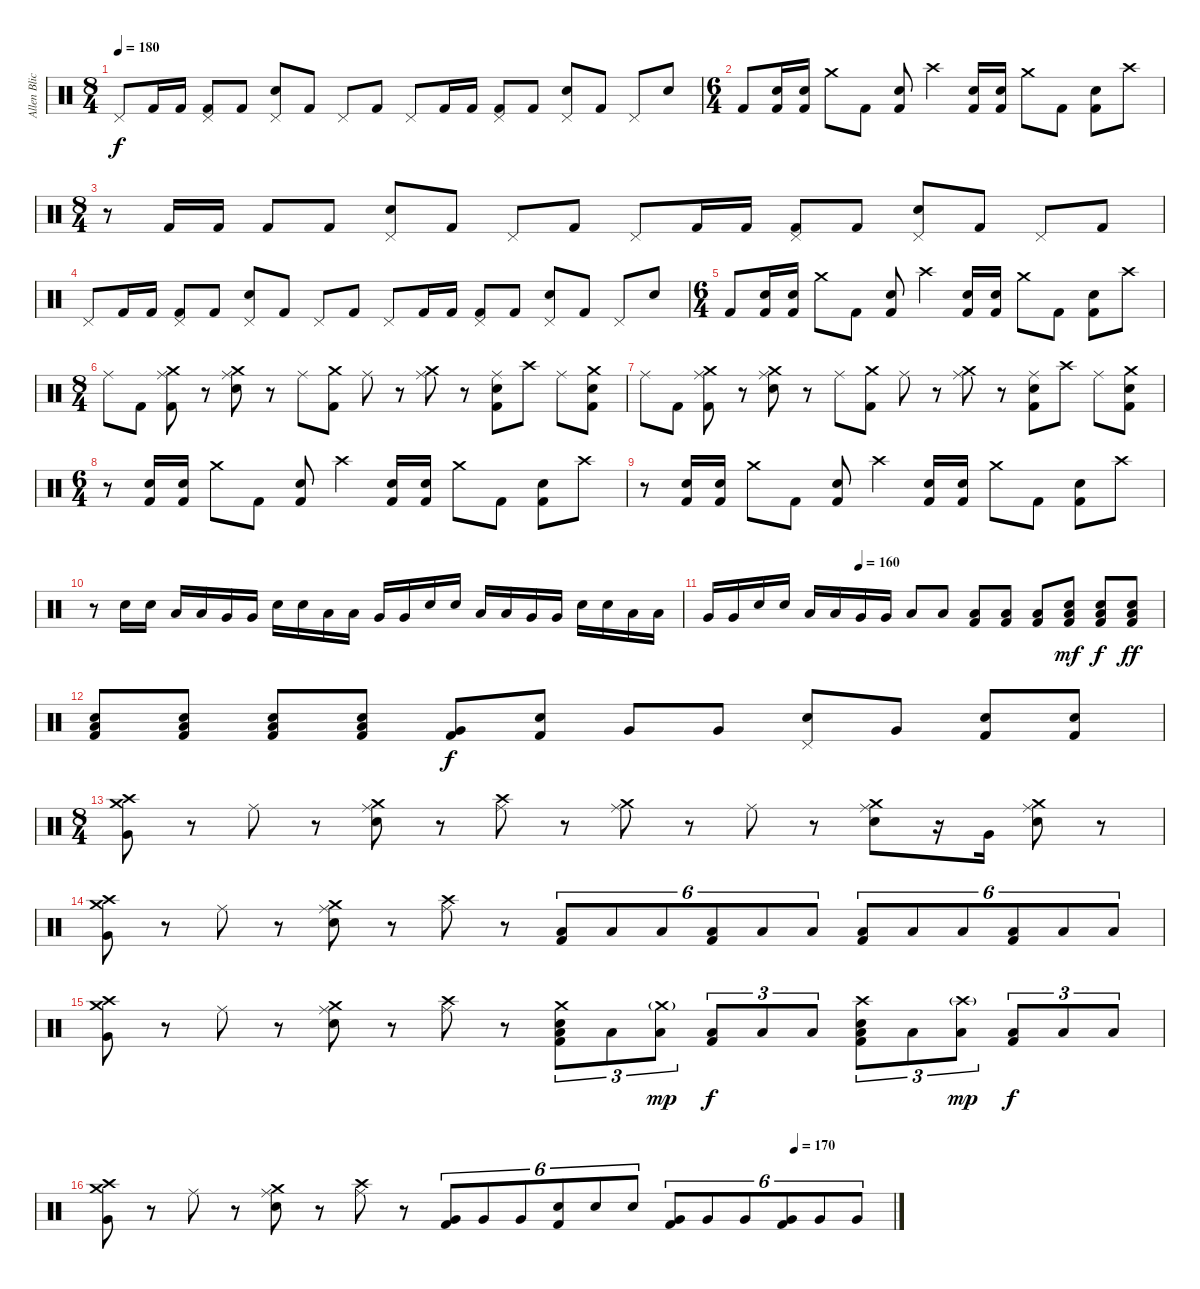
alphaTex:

\track ("Allen Blickle" "Allen Blic") {instrument percussion}
\staff {score}
\articulation defaults
\ts (8 4)
\tempo 180
\clef neutral
\ks c "Pedal Hi-Hat (hit)".8{dy f} "Kick (hit) 2".16 "Kick (hit) 2".16
("Pedal Hi-Hat (hit)" "Kick (hit) 2").8 "Kick (hit) 2".8 ("Pedal Hi-Hat (hit)" "Electric Snare (hit)").8 "Kick (hit) 2".8 "Pedal Hi-Hat (hit)".8 "Kick (hit) 2".8 "Pedal Hi-Hat (hit)".8 "Kick (hit) 2".16 "Kick (hit) 2".16 ("Pedal Hi-Hat (hit)" "Kick (hit) 2").8 "Kick (hit) 2".8 ("Pedal Hi-Hat (hit)" "Electric Snare (hit)").8 "Kick (hit) 2".8 "Pedal Hi-Hat (hit)".8 "Electric Snare (hit)".8 |
\ts (6 4)
"Kick (hit) 2".8 ("Electric Snare (hit)" "Kick (hit) 2").16 ("Electric Snare (hit)" "Kick (hit) 2").16 "Crash medium (hit)".8 "Kick (hit) 2".8 ("Electric Snare (hit)" "Kick (hit) 2").8 "Crash high (hit)".4 ("Electric Snare (hit)" "Kick (hit) 2").16 ("Electric Snare (hit)" "Kick (hit) 2").16 "Crash medium (hit)".8 "Kick (hit) 2".8 ("Electric Snare (hit)" "Kick (hit) 2").8 "Crash high (hit)".8 |
\ts (8 4)
r.8 "Kick (hit) 2".16 "Kick (hit) 2".16 "Kick (hit) 2".8 "Kick (hit) 2".8 ("Pedal Hi-Hat (hit)" "Electric Snare (hit)").8 "Kick (hit) 2".8 "Pedal Hi-Hat (hit)".8 "Kick (hit) 2".8 "Pedal Hi-Hat (hit)".8 "Kick (hit) 2".16 "Kick (hit) 2".16 ("Pedal Hi-Hat (hit)" "Kick (hit) 2").8 "Kick (hit) 2".8 ("Pedal Hi-Hat (hit)" "Electric Snare (hit)").8 "Kick (hit) 2".8 "Pedal Hi-Hat (hit)".8 "Kick (hit) 2".8 |
"Pedal Hi-Hat (hit)".8 "Kick (hit) 2".16 "Kick (hit) 2".16 ("Pedal Hi-Hat (hit)" "Kick (hit) 2").8 "Kick (hit) 2".8 ("Pedal Hi-Hat (hit)" "Electric Snare (hit)").8 "Kick (hit) 2".8 "Pedal Hi-Hat (hit)".8 "Kick (hit) 2".8 "Pedal Hi-Hat (hit)".8 "Kick (hit) 2".16 "Kick (hit) 2".16 ("Pedal Hi-Hat (hit)" "Kick (hit) 2").8 "Kick (hit) 2".8 ("Pedal Hi-Hat (hit)" "Electric Snare (hit)").8 "Kick (hit) 2".8 "Pedal Hi-Hat (hit)".8 "Electric Snare (hit)".8 |
\ts (6 4)
"Kick (hit) 2".8 ("Electric Snare (hit)" "Kick (hit) 2").16 ("Electric Snare (hit)" "Kick (hit) 2").16 "Crash medium (hit)".8 "Kick (hit) 2".8 ("Electric Snare (hit)" "Kick (hit) 2").8 "Crash high (hit)".4 ("Electric Snare (hit)" "Kick (hit) 2").16 ("Electric Snare (hit)" "Kick (hit) 2").16 "Crash medium (hit)".8 "Kick (hit) 2".8 ("Electric Snare (hit)" "Kick (hit) 2").8 "Crash high (hit)".8 |
\ts (8 4)
"Ride (middle)".8 "Kick (hit) 2".8 ("Ride (middle)" "Crash medium (hit)" "Kick (hit) 2").8 r.8 ("Ride (middle)" "Crash medium (hit)" "Electric Snare (hit)").8 r.8 "Ride (middle)".8 ("Crash medium (hit)" "Kick (hit) 2").8 "Ride (middle)".8 r.8 ("Ride (middle)" "Crash medium (hit)").8 r.8 ("Ride (middle)" "Electric Snare (hit)" "Kick (hit) 2").8 "Crash high (hit)".8 "Ride (middle)".8 ("Crash medium (hit)" "Electric Snare (hit)" "Kick (hit) 2").8 |
"Ride (middle)".8 "Kick (hit) 2".8 ("Ride (middle)" "Crash medium (hit)" "Kick (hit) 2").8 r.8 ("Ride (middle)" "Crash medium (hit)" "Electric Snare (hit)").8 r.8 "Ride (middle)".8 ("Crash medium (hit)" "Kick (hit) 2").8 "Ride (middle)".8 r.8 ("Ride (middle)" "Crash medium (hit)").8 r.8 ("Ride (middle)" "Electric Snare (hit)" "Kick (hit) 2").8 "Crash high (hit)".8 "Ride (middle)".8 ("Crash medium (hit)" "Electric Snare (hit)" "Kick (hit) 2").8 |
\ts (6 4)
r.8 ("Electric Snare (hit)" "Kick (hit) 2").16 ("Electric Snare (hit)" "Kick (hit) 2").16 "Crash medium (hit)".8 "Kick (hit) 2".8 ("Electric Snare (hit)" "Kick (hit) 2").8 "Crash high (hit)".4 ("Electric Snare (hit)" "Kick (hit) 2").16 ("Electric Snare (hit)" "Kick (hit) 2").16 "Crash medium (hit)".8 "Kick (hit) 2".8 ("Electric Snare (hit)" "Kick (hit) 2").8 "Crash high (hit)".8 |
r.8 ("Electric Snare (hit)" "Kick (hit) 2").16 ("Electric Snare (hit)" "Kick (hit) 2").16 "Crash medium (hit)".8 "Kick (hit) 2".8 ("Electric Snare (hit)" "Kick (hit) 2").8 "Crash high (hit)".4 ("Electric Snare (hit)" "Kick (hit) 2").16 ("Electric Snare (hit)" "Kick (hit) 2").16 "Crash medium (hit)".8 "Kick (hit) 2".8 ("Electric Snare (hit)" "Kick (hit) 2").8 "Crash high (hit)".8 |
r.8 "Electric Snare (hit)".16 "Electric Snare (hit)".16 "Low Tom (hit)".16 "Low Tom (hit)".16 "Very Low Tom (hit)".16 "Very Low Tom (hit)".16 "Electric Snare (hit)".16 "Electric Snare (hit)".16 "Low Tom (hit)".16 "Low Tom (hit)".16 "Very Low Tom (hit)".16 "Very Low Tom (hit)".16 "Electric Snare (hit)".16 "Electric Snare (hit)".16 "Low Tom (hit)".16 "Low Tom (hit)".16 "Very Low Tom (hit)".16 "Very Low Tom (hit)".16 "Electric Snare (hit)".16 "Electric Snare (hit)".16 "Low Tom (hit)".16 "Low Tom (hit)".16 |
\tempo (160 0.3333333333333333)
"Very Low Tom (hit)".16 "Very Low Tom (hit)".16 "Electric Snare (hit)".16 "Electric Snare (hit)".16 "Low Tom (hit)".16 "Low Tom (hit)".16 "Very Low Tom (hit)".16 "Very Low Tom (hit)".16 "Low Tom (hit)".8 "Low Tom (hit)".8 ("Low Tom (hit)" "Kick (hit) 2").8 ("Low Tom (hit)" "Kick (hit) 2").8 ("Low Tom (hit)" "Kick (hit) 2").8 ("Low Tom (hit)" "Electric Snare (hit)" "Kick (hit) 2").8{dy mf} ("Low Tom (hit)" "Electric Snare (hit)" "Kick (hit) 2").8{dy f} ("Low Tom (hit)" "Electric Snare (hit)" "Kick (hit) 2").8{dy ff} |
("Low Tom (hit)" "Electric Snare (hit)" "Kick (hit) 2").8 ("Low Tom (hit)" "Electric Snare (hit)" "Kick (hit) 2").8 ("Low Tom (hit)" "Electric Snare (hit)" "Kick (hit) 2").8 ("Low Tom (hit)" "Electric Snare (hit)" "Kick (hit) 2").8 ("Very Low Tom (hit)" "Kick (hit) 2").8{dy f} ("Electric Snare (hit)" "Kick (hit) 2").8 "Very Low Tom (hit)".8 "Very Low Tom (hit)".8 ("Electric Snare (hit)" "Pedal Hi-Hat (hit)").8 "Very Low Tom (hit)".8 ("Electric Snare (hit)" "Kick (hit) 2").8 ("Electric Snare (hit)" "Kick (hit) 2").8 |
\ts (8 4)
("Crash high (hit)" "Very Low Tom (hit)" "Crash medium (hit)").8 r.8 "Ride (middle)".8 r.8 ("Ride (middle)" "Crash medium (hit)" "Electric Snare (hit)").8 r.8 ("Ride (middle)" "Crash high (hit)").8 r.8 ("Ride (middle)" "Crash medium (hit)").8 r.8 "Ride (middle)".8 r.8 ("Ride (middle)" "Crash medium (hit)" "Electric Snare (hit)").8 r.16 "Very Low Tom (hit)".16 ("Ride (middle)" "Crash medium (hit)" "Electric Snare (hit)").8 r.8 |
("Crash high (hit)" "Very Low Tom (hit)" "Crash medium (hit)").8 r.8 "Ride (middle)".8 r.8 ("Ride (middle)" "Crash medium (hit)" "Electric Snare (hit)").8 r.8 ("Ride (middle)" "Crash high (hit)").8 r.8 ("Kick (hit) 2" "Low Floor Tom (hit)").8{tu (6 4)} "Low Floor Tom (hit)".8{tu (6 4)} "Low Floor Tom (hit)".8{tu (6 4)} ("Kick (hit) 2" "Low Floor Tom (hit)").8{tu (6 4)} "Low Floor Tom (hit)".8{tu (6 4)} "Low Floor Tom (hit)".8{tu (6 4)} ("Kick (hit) 2" "Low Floor Tom (hit)").8{tu (6 4)} "Low Floor Tom (hit)".8{tu (6 4)} "Low Floor Tom (hit)".8{tu (6 4)} ("Kick (hit) 2" "Low Floor Tom (hit)").8{tu (6 4)} "Low Floor Tom (hit)".8{tu (6 4)} "Low Floor Tom (hit)".8{tu (6 4)} |
("Crash high (hit)" "Very Low Tom (hit)" "Crash medium (hit)").8 r.8 "Ride (middle)".8 r.8 ("Ride (middle)" "Crash medium (hit)" "Electric Snare (hit)").8 r.8 ("Ride (middle)" "Crash high (hit)").8 r.8 ("Kick (hit) 2" "Low Floor Tom (hit)" "Crash medium (hit)" "Electric Snare (hit)").8{tu (3 2)} "Low Floor Tom (hit)".8{tu (3 2)} ("Low Floor Tom (hit)" "Crash medium (hit)"{g}).8{tu (3 2) dy mp} ("Kick (hit) 2" "Low Floor Tom (hit)").8{tu (3 2) dy f} "Low Floor Tom (hit)".8{tu (3 2)} "Low Floor Tom (hit)".8{tu (3 2)} ("Kick (hit) 2" "Low Floor Tom (hit)" "Crash high (hit)" "Electric Snare (hit)").8{tu (3 2)} "Low Floor Tom (hit)".8{tu (3 2)} ("Low Floor Tom (hit)" "Crash high (hit)"{g}).8{tu (3 2) dy mp} ("Kick (hit) 2" "Low Floor Tom (hit)").8{tu (3 2) dy f} "Low Floor Tom (hit)".8{tu (3 2)} "Low Floor Tom (hit)".8{tu (3 2)} |
\tempo (170 0.875)
("Crash high (hit)" "Very Low Tom (hit)" "Crash medium (hit)").8 r.8 "Ride (middle)".8 r.8 ("Ride (middle)" "Crash medium (hit)" "Electric Snare (hit)").8 r.8 ("Ride (middle)" "Crash high (hit)").8 r.8 ("Kick (hit) 2" "Very Low Tom (hit)").8{tu (6 4)} "Very Low Tom (hit)".8{tu (6 4)} "Very Low Tom (hit)".8{tu (6 4)} ("Kick (hit) 2" "Electric Snare (hit)").8{tu (6 4)} "Electric Snare (hit)".8{tu (6 4)} "Electric Snare (hit)".8{tu (6 4)} ("Kick (hit) 2" "Very Low Tom (hit)").8{tu (6 4)} "Very Low Tom (hit)".8{tu (6 4)} "Very Low Tom (hit)".8{tu (6 4)} ("Kick (hit) 2" "Very Low Tom (hit)").8{tu (6 4)} "Very Low Tom (hit)".8{tu (6 4)} "Very Low Tom (hit)".8{tu (6 4)}
